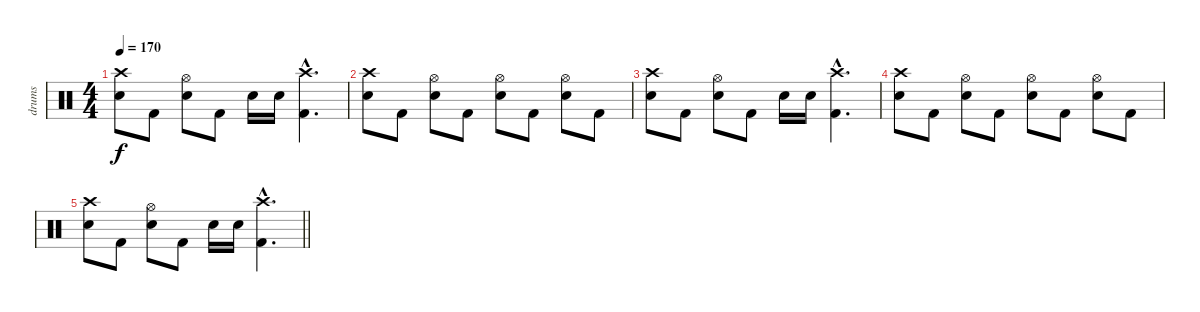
\track ("drums" "drums") {instrument percussion}
\staff {score}
\articulation defaults
\ts (4 4)
\tempo 170
\clef neutral
\ks c
("Crash high (hit)" "Electric Snare (hit)").8{dy f} "Kick (hit) 2".8 ("Hi-Hat (open)" "Electric Snare (hit)").8 "Kick (hit) 2".8 "Electric Snare (hit)".16 "Electric Snare (hit)".16 ("Crash high (hit)"{hac} "Kick (hit) 2"{hac}).4{d} |
("Crash high (hit)" "Electric Snare (hit)").8 "Kick (hit) 2".8 ("Hi-Hat (open)" "Electric Snare (hit)").8 "Kick (hit) 2".8 ("Hi-Hat (open)" "Electric Snare (hit)").8 "Kick (hit) 2".8 ("Hi-Hat (open)" "Electric Snare (hit)").8 "Kick (hit) 2".8 |
("Crash high (hit)" "Electric Snare (hit)").8 "Kick (hit) 2".8 ("Hi-Hat (open)" "Electric Snare (hit)").8 "Kick (hit) 2".8 "Electric Snare (hit)".16 "Electric Snare (hit)".16 ("Crash high (hit)"{hac} "Kick (hit) 2"{hac}).4{d} |
("Crash high (hit)" "Electric Snare (hit)").8 "Kick (hit) 2".8 ("Hi-Hat (open)" "Electric Snare (hit)").8 "Kick (hit) 2".8 ("Hi-Hat (open)" "Electric Snare (hit)").8 "Kick (hit) 2".8 ("Hi-Hat (open)" "Electric Snare (hit)").8 "Kick (hit) 2".8 |
\barLineRight lightlight
("Crash high (hit)" "Electric Snare (hit)").8 "Kick (hit) 2".8 ("Hi-Hat (open)" "Electric Snare (hit)").8 "Kick (hit) 2".8 "Electric Snare (hit)".16 "Electric Snare (hit)".16 ("Crash high (hit)"{hac} "Kick (hit) 2"{hac}).4{d}
